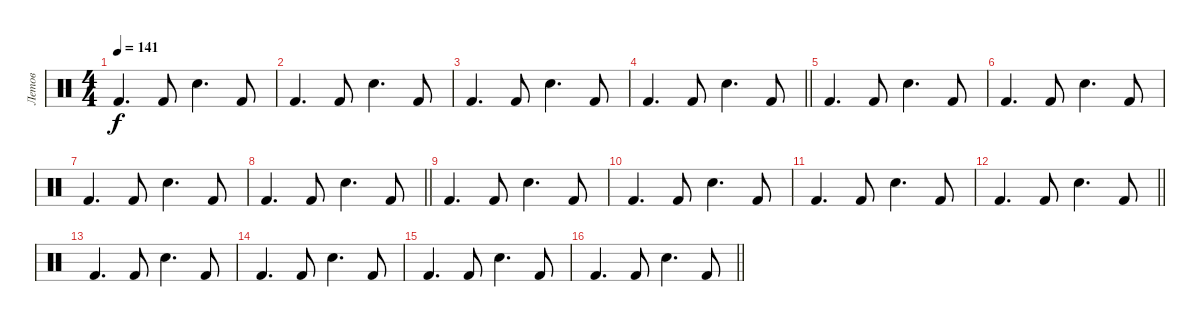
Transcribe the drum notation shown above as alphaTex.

\track ("Летов" "Летов") {instrument percussion}
\staff {score}
\articulation defaults
\ts (4 4)
\tempo 141
\clef neutral
\ks c "Kick (hit) 2".4{d dy f} "Kick (hit) 2".8 "Electric Snare (hit)".4{d} "Kick (hit) 2".8
|
"Kick (hit) 2".4{d} "Kick (hit) 2".8 "Electric Snare (hit)".4{d} "Kick (hit) 2".8 |
"Kick (hit) 2".4{d} "Kick (hit) 2".8 "Electric Snare (hit)".4{d} "Kick (hit) 2".8 |
\barLineRight lightlight "Kick (hit) 2".4{d} "Kick (hit) 2".8 "Electric Snare (hit)".4{d} "Kick (hit) 2".8
|
"Kick (hit) 2".4{d} "Kick (hit) 2".8 "Electric Snare (hit)".4{d} "Kick (hit) 2".8 |
"Kick (hit) 2".4{d} "Kick (hit) 2".8 "Electric Snare (hit)".4{d} "Kick (hit) 2".8 |
"Kick (hit) 2".4{d} "Kick (hit) 2".8 "Electric Snare (hit)".4{d} "Kick (hit) 2".8 |
\barLineRight lightlight "Kick (hit) 2".4{d} "Kick (hit) 2".8 "Electric Snare (hit)".4{d} "Kick (hit) 2".8
|
"Kick (hit) 2".4{d} "Kick (hit) 2".8 "Electric Snare (hit)".4{d} "Kick (hit) 2".8 |
"Kick (hit) 2".4{d} "Kick (hit) 2".8 "Electric Snare (hit)".4{d} "Kick (hit) 2".8 |
"Kick (hit) 2".4{d} "Kick (hit) 2".8 "Electric Snare (hit)".4{d} "Kick (hit) 2".8 |
\barLineRight lightlight "Kick (hit) 2".4{d} "Kick (hit) 2".8 "Electric Snare (hit)".4{d} "Kick (hit) 2".8
|
"Kick (hit) 2".4{d} "Kick (hit) 2".8 "Electric Snare (hit)".4{d} "Kick (hit) 2".8 |
"Kick (hit) 2".4{d} "Kick (hit) 2".8 "Electric Snare (hit)".4{d} "Kick (hit) 2".8 |
"Kick (hit) 2".4{d} "Kick (hit) 2".8 "Electric Snare (hit)".4{d} "Kick (hit) 2".8 |
\barLineRight lightlight "Kick (hit) 2".4{d} "Kick (hit) 2".8 "Electric Snare (hit)".4{d} "Kick (hit) 2".8
